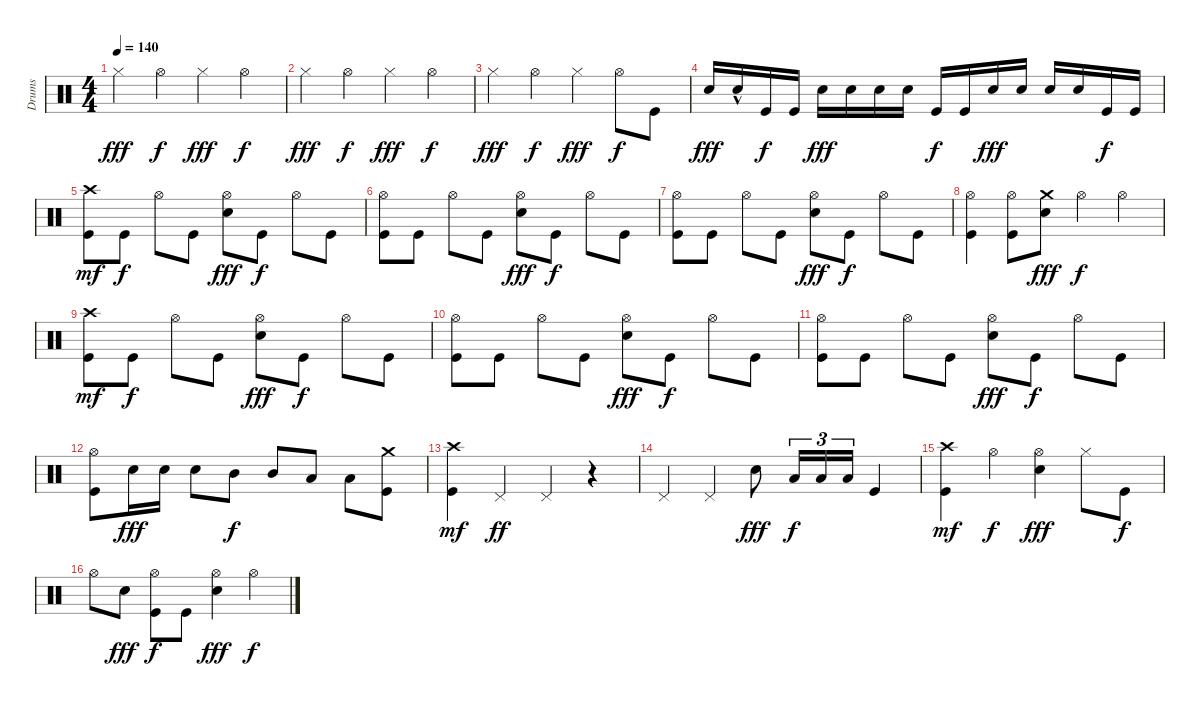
\track ("Drums" "Drums") {instrument percussion}
\staff {score}
\articulation defaults
\ts (4 4)
\tempo 140
\clef neutral
\ks c "Hi-Hat (closed)".4{dy fff} "Hi-Hat (open)".4{dy f} "Hi-Hat (closed)".4{dy fff} "Hi-Hat (open)".4{dy f}
|
"Hi-Hat (closed)".4{dy fff} "Hi-Hat (open)".4{dy f} "Hi-Hat (closed)".4{dy fff} "Hi-Hat (open)".4{dy f} |
"Hi-Hat (closed)".4{dy fff} "Hi-Hat (open)".4{dy f} "Hi-Hat (closed)".4{dy fff} "Hi-Hat (open)".8{dy f} "Kick (hit)".8 |
"Electric Snare (hit)".16{dy fff} "Electric Snare (hit)"{hac}.16 "Kick (hit)".16{dy f} "Kick (hit)".16 "Electric Snare (hit)".16{dy fff} "Electric Snare (hit)".16 "Electric Snare (hit)".16 "Electric Snare (hit)".16 "Kick (hit)".16{dy f} "Kick (hit)".16 "Electric Snare (hit)".16{dy fff} "Electric Snare (hit)".16 "Electric Snare (hit)".16 "Electric Snare (hit)".16 "Kick (hit)".16{dy f} "Kick (hit)".16 |
("Kick (hit)" "Crash high (hit)").8{dy mf} "Kick (hit)".8{dy f} "Hi-Hat (open)".8 "Kick (hit)".8 ("Electric Snare (hit)" "Hi-Hat (open)").8{dy fff} "Kick (hit)".8{dy f} "Hi-Hat (open)".8 "Kick (hit)".8 |
("Kick (hit)" "Hi-Hat (open)").8 "Kick (hit)".8 "Hi-Hat (open)".8 "Kick (hit)".8 ("Electric Snare (hit)" "Hi-Hat (open)").8{dy fff} "Kick (hit)".8{dy f} "Hi-Hat (open)".8 "Kick (hit)".8 |
("Kick (hit)" "Hi-Hat (open)").8 "Kick (hit)".8 "Hi-Hat (open)".8 "Kick (hit)".8 ("Electric Snare (hit)" "Hi-Hat (open)").8{dy fff} "Kick (hit)".8{dy f} "Hi-Hat (open)".8 "Kick (hit)".8 |
("Hi-Hat (open)" "Kick (hit)").4 ("Hi-Hat (open)" "Kick (hit)").8 ("Electric Snare (hit)" "Crash medium (hit)").8{dy fff} "Hi-Hat (open)".4{dy f} "Hi-Hat (open)".4 |
("Kick (hit)" "Crash high (hit)").8{dy mf} "Kick (hit)".8{dy f} "Hi-Hat (open)".8 "Kick (hit)".8 ("Electric Snare (hit)" "Hi-Hat (open)").8{dy fff} "Kick (hit)".8{dy f} "Hi-Hat (open)".8 "Kick (hit)".8 |
("Kick (hit)" "Hi-Hat (open)").8 "Kick (hit)".8 "Hi-Hat (open)".8 "Kick (hit)".8 ("Electric Snare (hit)" "Hi-Hat (open)").8{dy fff} "Kick (hit)".8{dy f} "Hi-Hat (open)".8 "Kick (hit)".8 |
("Kick (hit)" "Hi-Hat (open)").8 "Kick (hit)".8 "Hi-Hat (open)".8 "Kick (hit)".8 ("Electric Snare (hit)" "Hi-Hat (open)").8{dy fff} "Kick (hit)".8{dy f} "Hi-Hat (open)".8 "Kick (hit)".8 |
("Hi-Hat (open)" "Kick (hit)").8 "Electric Snare (hit)".16{dy fff} "Electric Snare (hit)".16 "Electric Snare (hit)".8 "Mid Tom (hit)".8{dy f} "Mid Tom (hit)".8 "Low Tom (hit)".8 "Low Tom (hit)".8 ("Crash medium (hit)" "Kick (hit)").8 |
("Kick (hit)" "Crash high (hit)").4{dy mf} "Pedal Hi-Hat (hit)".4{dy ff} "Pedal Hi-Hat (hit)".4 r.4 |
"Pedal Hi-Hat (hit)".4 "Pedal Hi-Hat (hit)".4 "Electric Snare (hit)".8{dy fff} "Low Tom (hit)".16{tu (3 2) dy f} "Low Tom (hit)".16{tu (3 2)} "Low Tom (hit)".16{tu (3 2)} "Kick (hit)".4 |
("Kick (hit)" "Crash high (hit)").4{dy mf} "Hi-Hat (open)".4{dy f} ("Electric Snare (hit)" "Hi-Hat (open)").4{dy fff} "Hi-Hat (closed)".8 "Kick (hit)".8{dy f} |
"Hi-Hat (open)".8 "Electric Snare (hit)".8{dy fff} ("Kick (hit)" "Hi-Hat (open)").8{dy f} "Kick (hit)".8 ("Electric Snare (hit)" "Hi-Hat (open)").4{dy fff} "Hi-Hat (open)".4{dy f}
